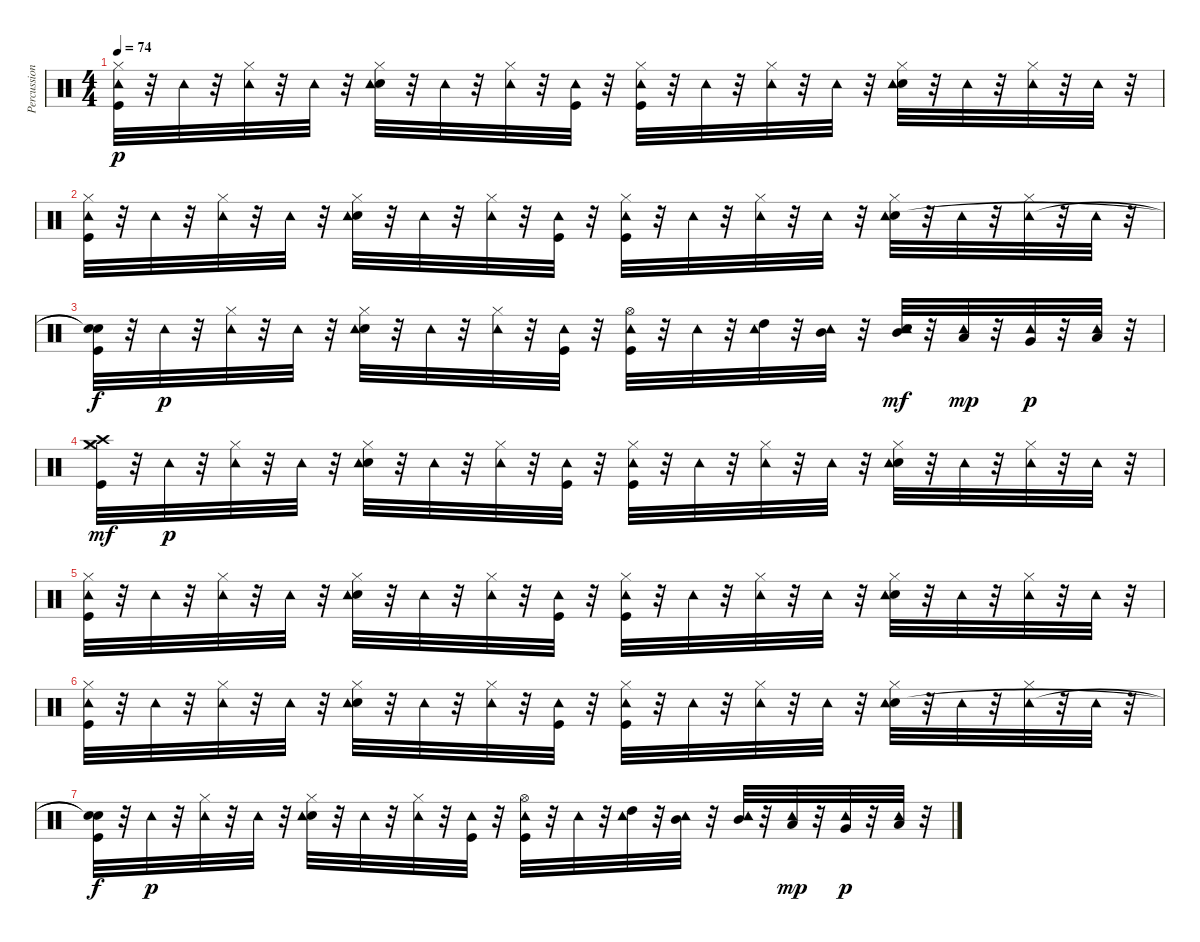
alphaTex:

\track ("Percussion" "Percussion") {instrument percussion}
\staff {score}
\articulation defaults
\ts (4 4)
\tempo 74
\clef neutral
\ks c
("Kick (hit)" "Hi-Hat (closed)" "Tambourine (hit)").32{dy p} r.32 "Tambourine (hit)".32 r.32 ("Hi-Hat (closed)" "Tambourine (hit)").32 r.32 "Tambourine (hit)".32 r.32 ("Snare (hit) 2" "Hi-Hat (closed)" "Tambourine (hit)").32 r.32 "Tambourine (hit)".32 r.32 ("Hi-Hat (closed)" "Tambourine (hit)").32 r.32 ("Kick (hit)" "Tambourine (hit)").32 r.32 ("Kick (hit)" "Hi-Hat (closed)" "Tambourine (hit)").32 r.32 "Tambourine (hit)".32 r.32 ("Hi-Hat (closed)" "Tambourine (hit)").32 r.32 "Tambourine (hit)".32 r.32 ("Snare (hit) 2" "Hi-Hat (closed)" "Tambourine (hit)").32 r.32 "Tambourine (hit)".32 r.32 ("Hi-Hat (closed)" "Tambourine (hit)").32 r.32 "Tambourine (hit)".32 r.32 |
("Kick (hit)" "Hi-Hat (closed)" "Tambourine (hit)").32 r.32 "Tambourine (hit)".32 r.32 ("Hi-Hat (closed)" "Tambourine (hit)").32 r.32 "Tambourine (hit)".32 r.32 ("Snare (hit) 2" "Hi-Hat (closed)" "Tambourine (hit)").32 r.32 "Tambourine (hit)".32 r.32 ("Hi-Hat (closed)" "Tambourine (hit)").32 r.32 ("Kick (hit)" "Tambourine (hit)").32 r.32 ("Kick (hit)" "Hi-Hat (closed)" "Tambourine (hit)").32 r.32 "Tambourine (hit)".32 r.32 ("Hi-Hat (closed)" "Tambourine (hit)").32 r.32 "Tambourine (hit)".32 r.32 ("Snare (hit) 2" "Hi-Hat (closed)" "Tambourine (hit)").32 r.32 "Tambourine (hit)".32 r.32 ("Hi-Hat (closed)" "Tambourine (hit)").32 r.32 "Tambourine (hit)".32 r.32 |
("Kick (hit)" "Snare (hit)"{t} "Snare (hit)"{t}).32{dy f volume 0} r.32 "Tambourine (hit)".32{dy p} r.32 ("Hi-Hat (closed)" "Tambourine (hit)").32 r.32 "Tambourine (hit)".32 r.32 ("Snare (hit) 2" "Hi-Hat (closed)" "Tambourine (hit)").32 r.32 "Tambourine (hit)".32 r.32 ("Hi-Hat (closed)" "Tambourine (hit)").32 r.32 ("Kick (hit)" "Tambourine (hit)").32 r.32 ("Kick (hit)" "Hi-Hat (open)" "Tambourine (hit)").32 r.32 "Tambourine (hit)".32 r.32 ("High Tom (hit)" "Tambourine (hit)").32 r.32 ("Mid Tom (hit)" "Tambourine (hit)").32 r.32 ("Mid Tom (hit)" "Tambourine (hit)" "Snare (hit) 2").32{dy mf} r.32 ("Low Tom (hit)" "Tambourine (hit)").32{dy mp} r.32 ("Very Low Tom (hit)" "Tambourine (hit)").32{dy p} r.32 ("Low Floor Tom (hit)" "Tambourine (hit)").32 r.32 |
("Kick (hit)" "Hi-Hat (closed)" "Crash high (hit)" "Crash medium (hit)").32{dy mf} r.32 "Tambourine (hit)".32{dy p} r.32 ("Hi-Hat (closed)" "Tambourine (hit)").32 r.32 "Tambourine (hit)".32 r.32 ("Snare (hit) 2" "Hi-Hat (closed)" "Tambourine (hit)").32 r.32 "Tambourine (hit)".32 r.32 ("Hi-Hat (closed)" "Tambourine (hit)").32 r.32 ("Kick (hit)" "Tambourine (hit)").32 r.32 ("Kick (hit)" "Hi-Hat (closed)" "Tambourine (hit)").32 r.32 "Tambourine (hit)".32 r.32 ("Hi-Hat (closed)" "Tambourine (hit)").32 r.32 "Tambourine (hit)".32 r.32 ("Snare (hit) 2" "Hi-Hat (closed)" "Tambourine (hit)").32 r.32 "Tambourine (hit)".32 r.32 ("Hi-Hat (closed)" "Tambourine (hit)").32 r.32 "Tambourine (hit)".32 r.32 |
("Kick (hit)" "Hi-Hat (closed)" "Tambourine (hit)").32 r.32 "Tambourine (hit)".32 r.32 ("Hi-Hat (closed)" "Tambourine (hit)").32 r.32 "Tambourine (hit)".32 r.32 ("Snare (hit) 2" "Hi-Hat (closed)" "Tambourine (hit)").32 r.32 "Tambourine (hit)".32 r.32 ("Hi-Hat (closed)" "Tambourine (hit)").32 r.32 ("Kick (hit)" "Tambourine (hit)").32 r.32 ("Kick (hit)" "Hi-Hat (closed)" "Tambourine (hit)").32 r.32 "Tambourine (hit)".32 r.32 ("Hi-Hat (closed)" "Tambourine (hit)").32 r.32 "Tambourine (hit)".32 r.32 ("Snare (hit) 2" "Hi-Hat (closed)" "Tambourine (hit)").32 r.32 "Tambourine (hit)".32 r.32 ("Hi-Hat (closed)" "Tambourine (hit)").32 r.32 "Tambourine (hit)".32 r.32 |
("Kick (hit)" "Hi-Hat (closed)" "Tambourine (hit)").32 r.32 "Tambourine (hit)".32 r.32 ("Hi-Hat (closed)" "Tambourine (hit)").32 r.32 "Tambourine (hit)".32 r.32 ("Snare (hit) 2" "Hi-Hat (closed)" "Tambourine (hit)").32 r.32 "Tambourine (hit)".32 r.32 ("Hi-Hat (closed)" "Tambourine (hit)").32 r.32 ("Kick (hit)" "Tambourine (hit)").32 r.32 ("Kick (hit)" "Hi-Hat (closed)" "Tambourine (hit)").32 r.32 "Tambourine (hit)".32 r.32 ("Hi-Hat (closed)" "Tambourine (hit)").32 r.32 "Tambourine (hit)".32 r.32 ("Snare (hit) 2" "Hi-Hat (closed)" "Tambourine (hit)").32 r.32 "Tambourine (hit)".32 r.32 ("Hi-Hat (closed)" "Tambourine (hit)").32 r.32 "Tambourine (hit)".32 r.32 |
("Kick (hit)" "Snare (hit)"{t} "Snare (hit)"{t}).32{dy f} r.32 "Tambourine (hit)".32{dy p} r.32 ("Hi-Hat (closed)" "Tambourine (hit)").32 r.32 "Tambourine (hit)".32 r.32 ("Snare (hit) 2" "Hi-Hat (closed)" "Tambourine (hit)").32 r.32 "Tambourine (hit)".32 r.32 ("Hi-Hat (closed)" "Tambourine (hit)").32 r.32 ("Kick (hit)" "Tambourine (hit)").32 r.32 ("Kick (hit)" "Hi-Hat (open)" "Tambourine (hit)").32 r.32 "Tambourine (hit)".32 r.32 ("High Tom (hit)" "Tambourine (hit)").32 r.32 ("Mid Tom (hit)" "Tambourine (hit)").32 r.32 ("Mid Tom (hit)" "Tambourine (hit)").32 r.32 ("Low Tom (hit)" "Tambourine (hit)").32{dy mp} r.32 ("Very Low Tom (hit)" "Tambourine (hit)").32{dy p} r.32 ("Low Floor Tom (hit)" "Tambourine (hit)").32 r.32
